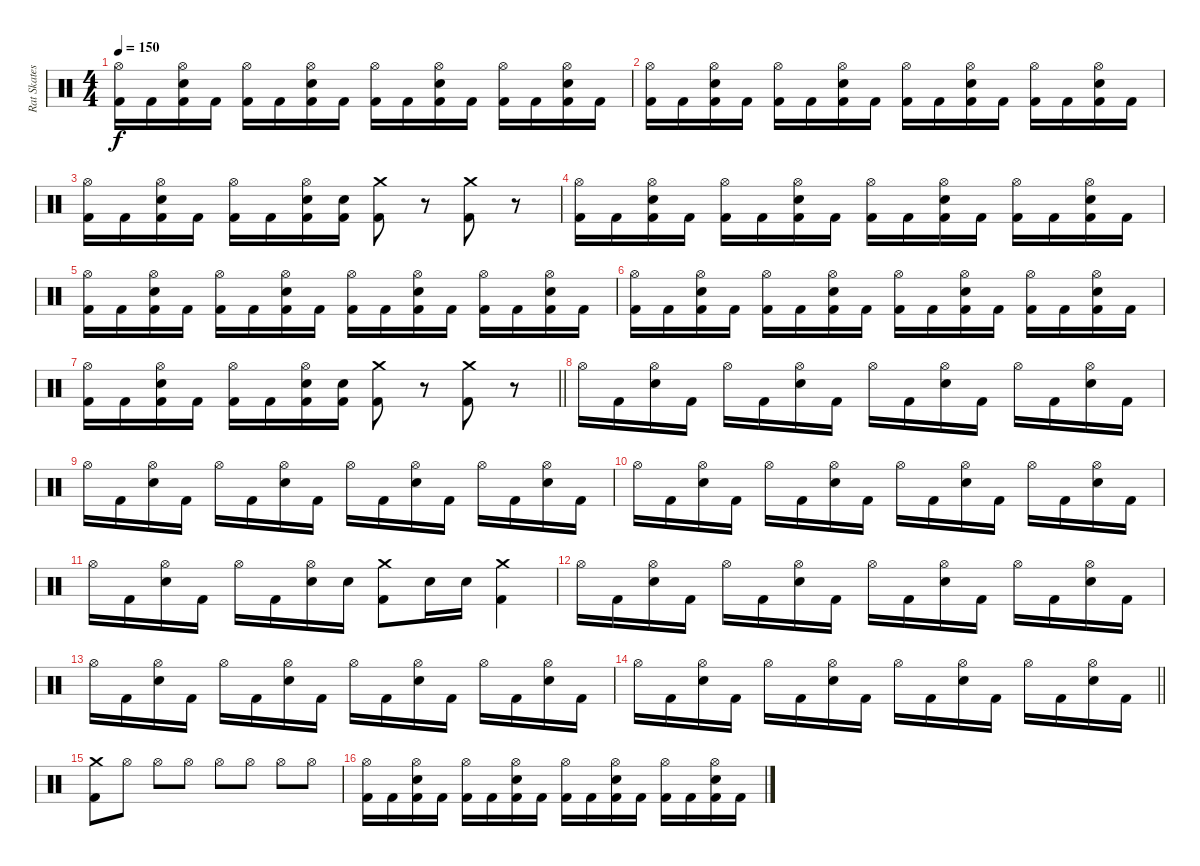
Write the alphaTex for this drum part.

\track ("Rat Skates" "Rat Skates") {instrument percussion}
\staff {score}
\articulation defaults
\ts (4 4)
\tempo 150
\clef neutral
\ks c
("Hi-Hat (open)" "Kick (hit) 2").16{dy f} "Kick (hit) 2".16 ("Hi-Hat (open)" "Snare (hit) 2" "Kick (hit) 2").16 "Kick (hit) 2".16 ("Hi-Hat (open)" "Kick (hit) 2").16 "Kick (hit) 2".16 ("Hi-Hat (open)" "Snare (hit) 2" "Kick (hit) 2").16 "Kick (hit) 2".16 ("Hi-Hat (open)" "Kick (hit) 2").16 "Kick (hit) 2".16 ("Hi-Hat (open)" "Snare (hit) 2" "Kick (hit) 2").16 "Kick (hit) 2".16 ("Hi-Hat (open)" "Kick (hit) 2").16 "Kick (hit) 2".16 ("Hi-Hat (open)" "Snare (hit) 2" "Kick (hit) 2").16 "Kick (hit) 2".16 |
("Hi-Hat (open)" "Kick (hit) 2").16 "Kick (hit) 2".16 ("Hi-Hat (open)" "Snare (hit) 2" "Kick (hit) 2").16 "Kick (hit) 2".16 ("Hi-Hat (open)" "Kick (hit) 2").16 "Kick (hit) 2".16 ("Hi-Hat (open)" "Snare (hit) 2" "Kick (hit) 2").16 "Kick (hit) 2".16 ("Hi-Hat (open)" "Kick (hit) 2").16 "Kick (hit) 2".16 ("Hi-Hat (open)" "Snare (hit) 2" "Kick (hit) 2").16 "Kick (hit) 2".16 ("Hi-Hat (open)" "Kick (hit) 2").16 "Kick (hit) 2".16 ("Hi-Hat (open)" "Snare (hit) 2" "Kick (hit) 2").16 "Kick (hit) 2".16 |
("Hi-Hat (open)" "Kick (hit) 2").16 "Kick (hit) 2".16 ("Hi-Hat (open)" "Snare (hit) 2" "Kick (hit) 2").16 "Kick (hit) 2".16 ("Hi-Hat (open)" "Kick (hit) 2").16 "Kick (hit) 2".16 ("Hi-Hat (open)" "Snare (hit) 2" "Kick (hit) 2").16 ("Snare (hit) 2" "Kick (hit) 2").16 ("Crash medium (hit)" "Kick (hit) 2").8 r.8 ("Crash medium (hit)" "Kick (hit) 2").8 r.8 |
("Hi-Hat (open)" "Kick (hit) 2").16 "Kick (hit) 2".16 ("Hi-Hat (open)" "Snare (hit) 2" "Kick (hit) 2").16 "Kick (hit) 2".16 ("Hi-Hat (open)" "Kick (hit) 2").16 "Kick (hit) 2".16 ("Hi-Hat (open)" "Snare (hit) 2" "Kick (hit) 2").16 "Kick (hit) 2".16 ("Hi-Hat (open)" "Kick (hit) 2").16 "Kick (hit) 2".16 ("Hi-Hat (open)" "Snare (hit) 2" "Kick (hit) 2").16 "Kick (hit) 2".16 ("Hi-Hat (open)" "Kick (hit) 2").16 "Kick (hit) 2".16 ("Hi-Hat (open)" "Snare (hit) 2" "Kick (hit) 2").16 "Kick (hit) 2".16 |
("Hi-Hat (open)" "Kick (hit) 2").16 "Kick (hit) 2".16 ("Hi-Hat (open)" "Snare (hit) 2" "Kick (hit) 2").16 "Kick (hit) 2".16 ("Hi-Hat (open)" "Kick (hit) 2").16 "Kick (hit) 2".16 ("Hi-Hat (open)" "Snare (hit) 2" "Kick (hit) 2").16 "Kick (hit) 2".16 ("Hi-Hat (open)" "Kick (hit) 2").16 "Kick (hit) 2".16 ("Hi-Hat (open)" "Snare (hit) 2" "Kick (hit) 2").16 "Kick (hit) 2".16 ("Hi-Hat (open)" "Kick (hit) 2").16 "Kick (hit) 2".16 ("Hi-Hat (open)" "Snare (hit) 2" "Kick (hit) 2").16 "Kick (hit) 2".16 |
("Hi-Hat (open)" "Kick (hit) 2").16 "Kick (hit) 2".16 ("Hi-Hat (open)" "Snare (hit) 2" "Kick (hit) 2").16 "Kick (hit) 2".16 ("Hi-Hat (open)" "Kick (hit) 2").16 "Kick (hit) 2".16 ("Hi-Hat (open)" "Snare (hit) 2" "Kick (hit) 2").16 "Kick (hit) 2".16 ("Hi-Hat (open)" "Kick (hit) 2").16 "Kick (hit) 2".16 ("Hi-Hat (open)" "Snare (hit) 2" "Kick (hit) 2").16 "Kick (hit) 2".16 ("Hi-Hat (open)" "Kick (hit) 2").16 "Kick (hit) 2".16 ("Hi-Hat (open)" "Snare (hit) 2" "Kick (hit) 2").16 "Kick (hit) 2".16 |
\barLineRight lightlight
("Hi-Hat (open)" "Kick (hit) 2").16 "Kick (hit) 2".16 ("Hi-Hat (open)" "Snare (hit) 2" "Kick (hit) 2").16 "Kick (hit) 2".16 ("Hi-Hat (open)" "Kick (hit) 2").16 "Kick (hit) 2".16 ("Hi-Hat (open)" "Snare (hit) 2" "Kick (hit) 2").16 ("Snare (hit) 2" "Kick (hit) 2").16 ("Crash medium (hit)" "Kick (hit) 2").8 r.8 ("Crash medium (hit)" "Kick (hit) 2").8 r.8 |
"Hi-Hat (open)".16 "Kick (hit) 2".16 ("Hi-Hat (open)" "Snare (hit) 2").16 "Kick (hit) 2".16 "Hi-Hat (open)".16 "Kick (hit) 2".16 ("Hi-Hat (open)" "Snare (hit) 2").16 "Kick (hit) 2".16 "Hi-Hat (open)".16 "Kick (hit) 2".16 ("Hi-Hat (open)" "Snare (hit) 2").16 "Kick (hit) 2".16 "Hi-Hat (open)".16 "Kick (hit) 2".16 ("Hi-Hat (open)" "Snare (hit) 2").16 "Kick (hit) 2".16 |
"Hi-Hat (open)".16 "Kick (hit) 2".16 ("Hi-Hat (open)" "Snare (hit) 2").16 "Kick (hit) 2".16 "Hi-Hat (open)".16 "Kick (hit) 2".16 ("Hi-Hat (open)" "Snare (hit) 2").16 "Kick (hit) 2".16 "Hi-Hat (open)".16 "Kick (hit) 2".16 ("Hi-Hat (open)" "Snare (hit) 2").16 "Kick (hit) 2".16 "Hi-Hat (open)".16 "Kick (hit) 2".16 ("Hi-Hat (open)" "Snare (hit) 2").16 "Kick (hit) 2".16 |
"Hi-Hat (open)".16 "Kick (hit) 2".16 ("Hi-Hat (open)" "Snare (hit) 2").16 "Kick (hit) 2".16 "Hi-Hat (open)".16 "Kick (hit) 2".16 ("Hi-Hat (open)" "Snare (hit) 2").16 "Kick (hit) 2".16 "Hi-Hat (open)".16 "Kick (hit) 2".16 ("Hi-Hat (open)" "Snare (hit) 2").16 "Kick (hit) 2".16 "Hi-Hat (open)".16 "Kick (hit) 2".16 ("Hi-Hat (open)" "Snare (hit) 2").16 "Kick (hit) 2".16 |
"Hi-Hat (open)".16 "Kick (hit) 2".16 ("Hi-Hat (open)" "Snare (hit) 2").16 "Kick (hit) 2".16 "Hi-Hat (open)".16 "Kick (hit) 2".16 ("Hi-Hat (open)" "Snare (hit) 2").16 "Snare (hit) 2".16 ("Crash medium (hit)" "Kick (hit) 2").8 "Snare (hit) 2".16 "Snare (hit) 2".16 ("Crash medium (hit)" "Kick (hit) 2").4 |
"Hi-Hat (open)".16 "Kick (hit) 2".16 ("Hi-Hat (open)" "Snare (hit) 2").16 "Kick (hit) 2".16 "Hi-Hat (open)".16 "Kick (hit) 2".16 ("Hi-Hat (open)" "Snare (hit) 2").16 "Kick (hit) 2".16 "Hi-Hat (open)".16 "Kick (hit) 2".16 ("Hi-Hat (open)" "Snare (hit) 2").16 "Kick (hit) 2".16 "Hi-Hat (open)".16 "Kick (hit) 2".16 ("Hi-Hat (open)" "Snare (hit) 2").16 "Kick (hit) 2".16 |
"Hi-Hat (open)".16 "Kick (hit) 2".16 ("Hi-Hat (open)" "Snare (hit) 2").16 "Kick (hit) 2".16 "Hi-Hat (open)".16 "Kick (hit) 2".16 ("Hi-Hat (open)" "Snare (hit) 2").16 "Kick (hit) 2".16 "Hi-Hat (open)".16 "Kick (hit) 2".16 ("Hi-Hat (open)" "Snare (hit) 2").16 "Kick (hit) 2".16 "Hi-Hat (open)".16 "Kick (hit) 2".16 ("Hi-Hat (open)" "Snare (hit) 2").16 "Kick (hit) 2".16 |
\barLineRight lightlight "Hi-Hat (open)".16 "Kick (hit) 2".16
("Hi-Hat (open)" "Snare (hit) 2").16 "Kick (hit) 2".16 "Hi-Hat (open)".16 "Kick (hit) 2".16 ("Hi-Hat (open)" "Snare (hit) 2").16 "Kick (hit) 2".16 "Hi-Hat (open)".16 "Kick (hit) 2".16 ("Hi-Hat (open)" "Snare (hit) 2").16 "Kick (hit) 2".16 "Hi-Hat (open)".16 "Kick (hit) 2".16 ("Hi-Hat (open)" "Snare (hit) 2").16 "Kick (hit) 2".16 |
("Crash medium (hit)" "Kick (hit) 2").8 "Hi-Hat (open)".8 "Hi-Hat (open)".8 "Hi-Hat (open)".8 "Hi-Hat (open)".8 "Hi-Hat (open)".8 "Hi-Hat (open)".8 "Hi-Hat (open)".8 |
("Hi-Hat (open)" "Kick (hit) 2").16 "Kick (hit) 2".16 ("Hi-Hat (open)" "Snare (hit) 2" "Kick (hit) 2").16 "Kick (hit) 2".16 ("Hi-Hat (open)" "Kick (hit) 2").16 "Kick (hit) 2".16 ("Hi-Hat (open)" "Snare (hit) 2" "Kick (hit) 2").16 "Kick (hit) 2".16 ("Hi-Hat (open)" "Kick (hit) 2").16 "Kick (hit) 2".16 ("Hi-Hat (open)" "Snare (hit) 2" "Kick (hit) 2").16 "Kick (hit) 2".16 ("Hi-Hat (open)" "Kick (hit) 2").16 "Kick (hit) 2".16 ("Hi-Hat (open)" "Snare (hit) 2" "Kick (hit) 2").16 "Kick (hit) 2".16
